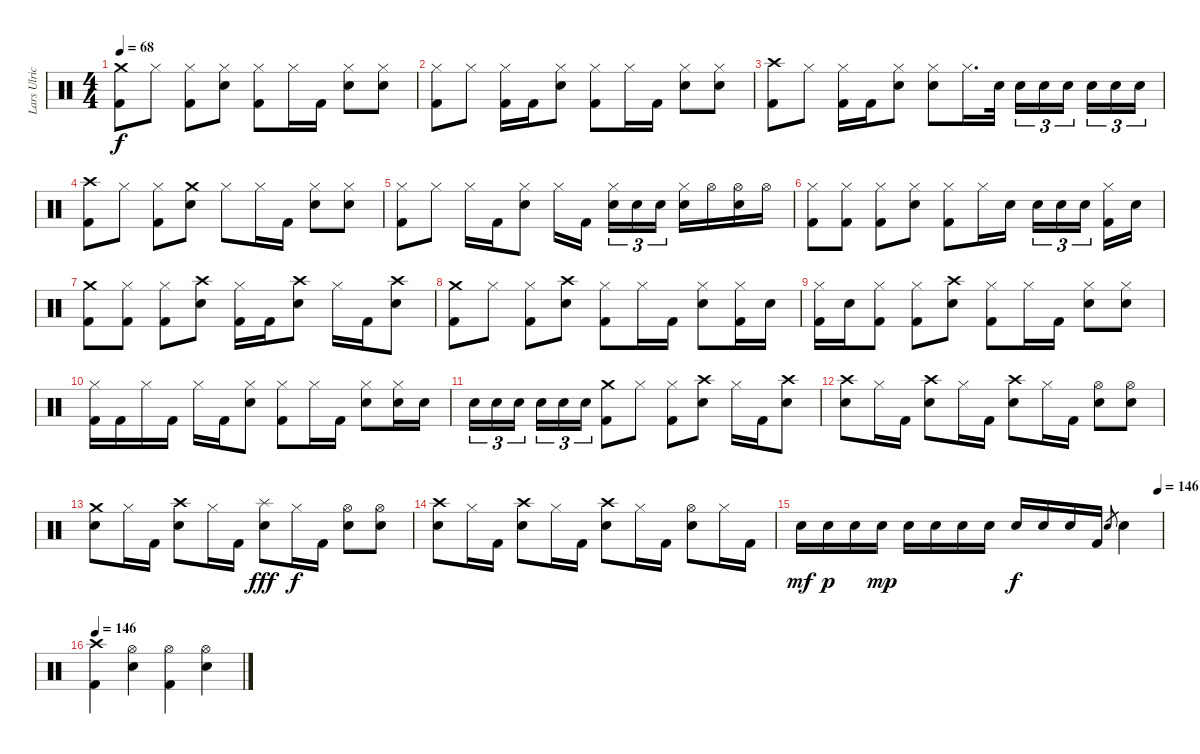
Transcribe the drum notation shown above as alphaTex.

\track ("Lars Ulrich" "Lars Ulric") {instrument percussion}
\staff {score}
\articulation defaults
\ts (4 4)
\tempo 68
\clef neutral
\ks c
("Crash medium (hit)" "Kick (hit) 2").8{dy f} "Hi-Hat (closed)".8 ("Hi-Hat (closed)" "Kick (hit) 2").8 ("Hi-Hat (closed)" "Electric Snare (hit)").8 ("Hi-Hat (closed)" "Kick (hit) 2").8 "Hi-Hat (closed)".16 "Kick (hit) 2".16 ("Hi-Hat (closed)" "Electric Snare (hit)").8 ("Hi-Hat (closed)" "Electric Snare (hit)").8 |
("Hi-Hat (closed)" "Kick (hit) 2").8 "Hi-Hat (closed)".8 ("Hi-Hat (closed)" "Kick (hit) 2").16 "Kick (hit) 2".16 ("Hi-Hat (closed)" "Electric Snare (hit)").8 ("Hi-Hat (closed)" "Kick (hit) 2").8 "Hi-Hat (closed)".16 "Kick (hit) 2".16 ("Hi-Hat (closed)" "Electric Snare (hit)").8 ("Hi-Hat (closed)" "Electric Snare (hit)").8 |
("Crash high (hit)" "Kick (hit) 2").8 "Hi-Hat (closed)".8 ("Hi-Hat (closed)" "Kick (hit) 2").16 "Kick (hit) 2".16 ("Hi-Hat (closed)" "Electric Snare (hit)").8 ("Hi-Hat (closed)" "Electric Snare (hit)").8 "Hi-Hat (closed)".16{d} "Electric Snare (hit)".32 "Electric Snare (hit)".16{tu (3 2)} "Electric Snare (hit)".16{tu (3 2)} "Electric Snare (hit)".16{tu (3 2)} "Electric Snare (hit)".16{tu (3 2)} "Electric Snare (hit)".16{tu (3 2)} "Electric Snare (hit)".16{tu (3 2)} |
("Crash high (hit)" "Kick (hit) 2").8 "Hi-Hat (closed)".8 ("Hi-Hat (closed)" "Kick (hit) 2").8 ("Crash medium (hit)" "Electric Snare (hit)").8 "Hi-Hat (closed)".8 "Hi-Hat (closed)".16 "Kick (hit) 2".16 ("Hi-Hat (closed)" "Electric Snare (hit)").8 ("Hi-Hat (closed)" "Electric Snare (hit)").8 |
("Hi-Hat (closed)" "Kick (hit) 2").8 "Hi-Hat (closed)".8 "Hi-Hat (closed)".16 "Kick (hit) 2".16 ("Hi-Hat (closed)" "Electric Snare (hit)").8 "Hi-Hat (closed)".16 "Kick (hit) 2".16 ("Hi-Hat (closed)" "Electric Snare (hit)").16{tu (3 2)} "Electric Snare (hit)".16{tu (3 2)} "Electric Snare (hit)".16{tu (3 2)} ("Hi-Hat (closed)" "Electric Snare (hit)").16 "Hi-Hat (open)".16 ("Hi-Hat (open)" "Electric Snare (hit)").16 "Hi-Hat (open)".16 |
("Hi-Hat (closed)" "Kick (hit) 2").8 ("Hi-Hat (closed)" "Kick (hit) 2").8 ("Hi-Hat (closed)" "Kick (hit) 2").8 ("Hi-Hat (closed)" "Electric Snare (hit)").8 ("Hi-Hat (closed)" "Kick (hit) 2").8 "Hi-Hat (closed)".16 "Electric Snare (hit)".16 "Electric Snare (hit)".16{tu (3 2)} "Electric Snare (hit)".16{tu (3 2)} "Electric Snare (hit)".16{tu (3 2)} ("Hi-Hat (closed)" "Kick (hit) 2").16 "Electric Snare (hit)".16 |
("Crash medium (hit)" "Kick (hit) 2").8 ("Hi-Hat (closed)" "Kick (hit) 2").8 ("Hi-Hat (closed)" "Kick (hit) 2").8 ("Crash high (hit)" "Electric Snare (hit)").8 ("Hi-Hat (closed)" "Kick (hit) 2").16 "Kick (hit) 2".16 ("Crash high (hit)" "Electric Snare (hit)").8 "Hi-Hat (closed)".16 "Kick (hit) 2".16 ("Crash high (hit)" "Electric Snare (hit)").8 |
("Crash medium (hit)" "Kick (hit) 2").8 "Hi-Hat (closed)".8 ("Hi-Hat (closed)" "Kick (hit) 2").8 ("Crash high (hit)" "Electric Snare (hit)").8 ("Hi-Hat (closed)" "Kick (hit) 2").8 "Hi-Hat (closed)".16 "Kick (hit) 2".16 ("Hi-Hat (closed)" "Electric Snare (hit)").8 ("Hi-Hat (closed)" "Kick (hit) 2").16 "Electric Snare (hit)".16 |
("Hi-Hat (closed)" "Kick (hit) 2").16 "Electric Snare (hit)".16 ("Hi-Hat (closed)" "Kick (hit) 2").8 ("Hi-Hat (closed)" "Kick (hit) 2").8 ("Crash high (hit)" "Electric Snare (hit)").8 ("Hi-Hat (closed)" "Kick (hit) 2").8 "Hi-Hat (closed)".16 "Kick (hit) 2".16 ("Hi-Hat (closed)" "Electric Snare (hit)").8 ("Hi-Hat (closed)" "Electric Snare (hit)").8 |
("Hi-Hat (closed)" "Kick (hit) 2").16 "Kick (hit) 2".16 "Hi-Hat (closed)".16 "Kick (hit) 2".16 "Hi-Hat (closed)".16 "Kick (hit) 2".16 ("Hi-Hat (closed)" "Electric Snare (hit)").8 ("Hi-Hat (closed)" "Kick (hit) 2").8 "Hi-Hat (closed)".16 "Kick (hit) 2".16 ("Hi-Hat (closed)" "Electric Snare (hit)").8 ("Hi-Hat (closed)" "Electric Snare (hit)").16 "Electric Snare (hit)".16 |
"Electric Snare (hit)".16{tu (3 2)} "Electric Snare (hit)".16{tu (3 2)} "Electric Snare (hit)".16{tu (3 2)} "Electric Snare (hit)".16{tu (3 2)} "Electric Snare (hit)".16{tu (3 2)} "Electric Snare (hit)".16{tu (3 2)} ("Crash medium (hit)" "Kick (hit) 2").8 "Hi-Hat (closed)".8 ("Hi-Hat (closed)" "Kick (hit) 2").8 ("Crash high (hit)" "Electric Snare (hit)").8 "Hi-Hat (closed)".16 "Kick (hit) 2".16 ("Crash high (hit)" "Electric Snare (hit)").8 |
("Crash high (hit)" "Electric Snare (hit)").8 "Hi-Hat (closed)".16 "Kick (hit) 2".16 ("Crash high (hit)" "Electric Snare (hit)").8 "Hi-Hat (closed)".16 "Kick (hit) 2".16 ("Crash high (hit)" "Electric Snare (hit)").8 "Hi-Hat (closed)".16 "Kick (hit) 2".16 ("Hi-Hat (open)" "Electric Snare (hit)").8 ("Hi-Hat (open)" "Electric Snare (hit)").8 |
("Crash medium (hit)" "Electric Snare (hit)").8 "Hi-Hat (closed)".16 "Kick (hit) 2".16 ("Crash high (hit)" "Electric Snare (hit)").8 "Hi-Hat (closed)".16 "Kick (hit) 2".16 ("Splash (hit)" "Electric Snare (hit)").8{dy fff} "Hi-Hat (closed)".16{dy f} "Kick (hit) 2".16 ("Hi-Hat (open)" "Electric Snare (hit)").8 ("Hi-Hat (open)" "Electric Snare (hit)").8 |
("Crash high (hit)" "Electric Snare (hit)").8 "Hi-Hat (closed)".16 "Kick (hit) 2".16 ("Crash high (hit)" "Electric Snare (hit)").8 "Hi-Hat (closed)".16 "Kick (hit) 2".16 ("Crash high (hit)" "Electric Snare (hit)").8 "Hi-Hat (closed)".16 "Kick (hit) 2".16 ("Hi-Hat (open)" "Electric Snare (hit)").8 "Hi-Hat (closed)".16 "Kick (hit) 2".16 |
\tempo (146 0.9895833333333334)
"Electric Snare (hit)".16{dy mf} "Electric Snare (hit)".16{dy p} "Electric Snare (hit)".16 "Electric Snare (hit)".16{dy mp} "Electric Snare (hit)".16 "Electric Snare (hit)".16 "Electric Snare (hit)".16 "Electric Snare (hit)".16 "Electric Snare (hit)".16{dy f} "Electric Snare (hit)".16 "Electric Snare (hit)".16 "Kick (hit) 2".16 "Electric Snare (hit)".8{gr} "Electric Snare (hit)".4 |
\tempo 146
("Crash high (hit)" "Kick (hit) 2").4 ("Hi-Hat (open)" "Electric Snare (hit)").4 ("Hi-Hat (open)" "Kick (hit) 2").4 ("Hi-Hat (open)" "Electric Snare (hit)").4
